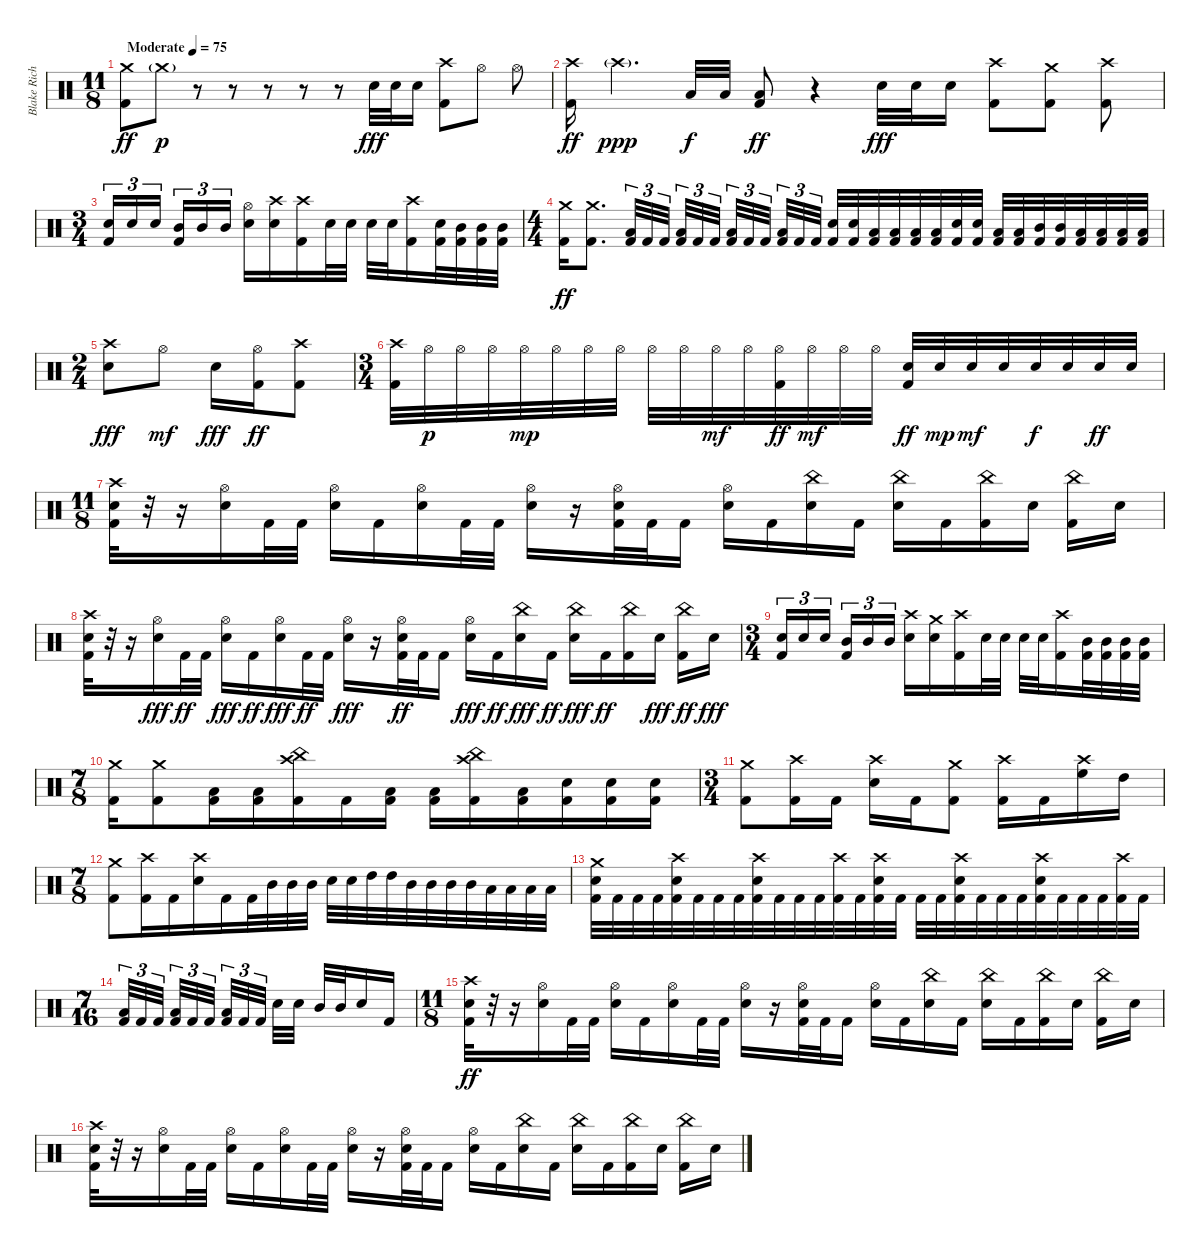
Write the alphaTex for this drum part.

\track ("Blake Richardson" "Blake Rich") {instrument percussion}
\staff {score}
\articulation defaults
\ts (11 8)
\tempo (75 "Moderate")
\clef neutral
\ks c
("Crash medium (hit)" "Kick (hit) 2").8{dy ff} "Crash medium (hit)"{g}.8{dy p} r.8 r.8 r.8 r.8 r.8 "Electric Snare (hit)".32{dy fff} "Electric Snare (hit)".32 "Electric Snare (hit)".16 ("Crash high (hit)" "Kick (hit) 2").8 "Hi-Hat (open)".8 "Hi-Hat (open)".8 |
("Crash high (hit)" "Kick (hit) 2").16{dy ff} "Crash high (hit)"{g}.4{d dy ppp volume 0} "Low Tom (hit)".32{dy f volume 11} "Low Tom (hit)".32 ("Low Tom (hit)" "Kick (hit) 2").8{dy ff} r.4 "Electric Snare (hit)".32{dy fff} "Electric Snare (hit)".32 "Electric Snare (hit)".16 ("Crash high (hit)" "Kick (hit) 2").8 ("Crash medium (hit)" "Kick (hit) 2").8 ("Crash high (hit)" "Kick (hit) 2").8 |
\ts (3 4)
("Electric Snare (hit)" "Kick (hit) 2").16{tu (3 2)} "Electric Snare (hit)".16{tu (3 2)} "Electric Snare (hit)".16{tu (3 2) beam splitsecondary} ("Mid Tom (hit)" "Kick (hit) 2").16{tu (3 2)} "Mid Tom (hit)".16{tu (3 2)} "Mid Tom (hit)".16{tu (3 2)} ("Hi-Hat (open)" "Electric Snare (hit)").16 ("Crash high (hit)" "Electric Snare (hit)").16 ("Crash high (hit)" "Kick (hit) 2").16 "Electric Snare (hit)".32 "Electric Snare (hit)".32 "Electric Snare (hit)".32 "Electric Snare (hit)".32 ("Crash high (hit)" "Kick (hit) 2").16 ("Electric Snare (hit)" "Kick (hit) 2").32 ("Mid Tom (hit)" "Kick (hit) 2").32 ("Mid Tom (hit)" "Kick (hit) 2").32 ("Mid Tom (hit)" "Kick (hit) 2").32 |
\ts (4 4)
("Crash medium (hit)" "Kick (hit) 2").16{dy ff} ("Crash medium (hit)" "Kick (hit) 2").8{d} ("Low Tom (hit)" "Kick (hit) 2").32{tu (3 2)} "Kick (hit) 2".32{tu (3 2)} "Kick (hit) 2".32{tu (3 2) beam splitsecondary} ("Low Tom (hit)" "Kick (hit) 2").32{tu (3 2)} "Kick (hit) 2".32{tu (3 2)} "Kick (hit) 2".32{tu (3 2) beam splitsecondary} ("Low Tom (hit)" "Kick (hit) 2").32{tu (3 2)} "Kick (hit) 2".32{tu (3 2)} "Kick (hit) 2".32{tu (3 2) beam splitsecondary} ("Low Tom (hit)" "Kick (hit) 2").32{tu (3 2)} "Kick (hit) 2".32{tu (3 2)} "Kick (hit) 2".32{tu (3 2)} ("Electric Snare (hit)" "Kick (hit) 2").32 ("Electric Snare (hit)" "Kick (hit) 2").32 ("Low Tom (hit)" "Kick (hit) 2").32 ("Low Tom (hit)" "Kick (hit) 2").32 ("Low Tom (hit)" "Kick (hit) 2").32 ("Low Tom (hit)" "Kick (hit) 2").32 ("Electric Snare (hit)" "Kick (hit) 2").32 ("Electric Snare (hit)" "Kick (hit) 2").32 ("Low Tom (hit)" "Kick (hit) 2").32 ("Low Tom (hit)" "Kick (hit) 2").32 ("Mid Tom (hit)" "Kick (hit) 2").32 ("Mid Tom (hit)" "Kick (hit) 2").32 ("Low Tom (hit)" "Kick (hit) 2").32 ("Low Tom (hit)" "Kick (hit) 2").32 ("Low Tom (hit)" "Kick (hit) 2").32 ("Low Tom (hit)" "Kick (hit) 2").32 |
\ts (2 4)
("Crash high (hit)" "Snare (hit) 2").8{dy fff} "Hi-Hat (open)".8{dy mf} "Electric Snare (hit)".16{dy fff} ("Hi-Hat (open)" "Kick (hit) 2").16{dy ff} ("Crash high (hit)" "Kick (hit) 2").8 |
\ts (3 4)
("Crash high (hit)" "Kick (hit) 2").32 "Hi-Hat (open)".32{dy p} "Hi-Hat (open)".32 "Hi-Hat (open)".32 "Hi-Hat (open)".32{dy mp} "Hi-Hat (open)".32 "Hi-Hat (open)".32 "Hi-Hat (open)".32 "Hi-Hat (open)".32 "Hi-Hat (open)".32 "Hi-Hat (open)".32{dy mf} "Hi-Hat (open)".32 ("Hi-Hat (open)" "Kick (hit) 2").32{dy ff} "Hi-Hat (open)".32{dy mf} "Hi-Hat (open)".32 "Hi-Hat (open)".32 ("Electric Snare (hit)" "Kick (hit) 2").32{dy ff} "Electric Snare (hit)".32{dy mp} "Electric Snare (hit)".32{dy mf} "Electric Snare (hit)".32 "Electric Snare (hit)".32{dy f} "Electric Snare (hit)".32 "Electric Snare (hit)".32{dy ff} "Electric Snare (hit)".32 |
\ts (11 8)
("Crash high (hit)" "Electric Snare (hit)" "Kick (hit) 2").32 r.32 r.16 ("Hi-Hat (open)" "Electric Snare (hit)").16 "Kick (hit) 2".32 "Kick (hit) 2".32 ("Hi-Hat (open)" "Electric Snare (hit)").16 "Kick (hit) 2".16 ("Hi-Hat (open)" "Electric Snare (hit)").16 "Kick (hit) 2".32 "Kick (hit) 2".32 ("Hi-Hat (open)" "Electric Snare (hit)").16 r.16 ("Hi-Hat (open)" "Electric Snare (hit)" "Kick (hit) 2").32 "Kick (hit) 2".32 "Kick (hit) 2".16 ("Hi-Hat (open)" "Electric Snare (hit)").16 "Kick (hit) 2".16 ("China (hit)" "Electric Snare (hit)").16 "Kick (hit) 2".16 ("China (hit)" "Electric Snare (hit)").16 "Kick (hit) 2".16 ("China (hit)" "Kick (hit) 2").16 "Electric Snare (hit)".16 ("China (hit)" "Kick (hit) 2").16 "Electric Snare (hit)".16 |
("Crash high (hit)" "Electric Snare (hit)" "Kick (hit) 2").32 r.32 r.16 ("Hi-Hat (open)" "Electric Snare (hit)").16{dy fff} "Kick (hit) 2".32{dy ff} "Kick (hit) 2".32 ("Hi-Hat (open)" "Electric Snare (hit)").16{dy fff} "Kick (hit) 2".16{dy ff} ("Hi-Hat (open)" "Electric Snare (hit)").16{dy fff} "Kick (hit) 2".32{dy ff} "Kick (hit) 2".32 ("Hi-Hat (open)" "Electric Snare (hit)").16{dy fff} r.16 ("Hi-Hat (open)" "Electric Snare (hit)" "Kick (hit) 2").32{dy ff} "Kick (hit) 2".32 "Kick (hit) 2".16 ("Hi-Hat (open)" "Electric Snare (hit)").16{dy fff} "Kick (hit) 2".16{dy ff} ("China (hit)" "Electric Snare (hit)").16{dy fff} "Kick (hit) 2".16{dy ff} ("China (hit)" "Electric Snare (hit)").16{dy fff} "Kick (hit) 2".16{dy ff} ("China (hit)" "Kick (hit) 2").16 "Electric Snare (hit)".16{dy fff} ("China (hit)" "Kick (hit) 2").16{dy ff} "Electric Snare (hit)".16{dy fff} |
\ts (3 4)
("Electric Snare (hit)" "Kick (hit) 2").16{tu (3 2)} "Electric Snare (hit)".16{tu (3 2)} "Electric Snare (hit)".16{tu (3 2) beam splitsecondary} ("Mid Tom (hit)" "Kick (hit) 2").16{tu (3 2)} "Mid Tom (hit)".16{tu (3 2)} "Mid Tom (hit)".16{tu (3 2)} ("Crash high (hit)" "Electric Snare (hit)").16 ("Crash medium (hit)" "Electric Snare (hit)").16 ("Crash high (hit)" "Kick (hit) 2").16 "Electric Snare (hit)".32 "Electric Snare (hit)".32 "Electric Snare (hit)".32 "Electric Snare (hit)".32 ("Crash high (hit)" "Kick (hit) 2").16 ("Mid Tom (hit)" "Kick (hit) 2").32 ("Mid Tom (hit)" "Kick (hit) 2").32 ("Mid Tom (hit)" "Kick (hit) 2").32 ("Mid Tom (hit)" "Kick (hit) 2").32 |
\ts (7 8)
("Crash medium (hit)" "Kick (hit) 2").16 ("Crash medium (hit)" "Kick (hit) 2").8 ("Low Tom (hit)" "Kick (hit) 2").16 ("Low Tom (hit)" "Kick (hit) 2").16 ("China (hit)" "Crash high (hit)" "Kick (hit) 2").16 "Kick (hit) 2".16 ("Low Tom (hit)" "Kick (hit) 2").16 ("Low Tom (hit)" "Kick (hit) 2").16 ("China (hit)" "Crash high (hit)" "Kick (hit) 2").16 ("Low Tom (hit)" "Kick (hit) 2").16 ("Electric Snare (hit)" "Kick (hit) 2").16 ("Electric Snare (hit)" "Kick (hit) 2").16 ("Electric Snare (hit)" "Kick (hit) 2").16 |
\ts (3 4)
("Crash medium (hit)" "Kick (hit) 2").8 ("Crash high (hit)" "Kick (hit) 2").16 "Kick (hit) 2".16 ("Crash high (hit)" "Electric Snare (hit)").16 "Kick (hit) 2".16 ("Crash medium (hit)" "Kick (hit) 2").8 ("Crash high (hit)" "Kick (hit) 2").16 "Kick (hit) 2".16 ("Crash high (hit)" "High Floor Tom (hit)").16 "High Tom (hit)".16 |
\ts (7 8)
("Crash medium (hit)" "Kick (hit) 2").8 ("Crash high (hit)" "Kick (hit) 2").16 "Kick (hit) 2".16 ("Crash high (hit)" "Electric Snare (hit)").16 "Kick (hit) 2".16 "Kick (hit) 2".32 "Mid Tom (hit)".32 "Mid Tom (hit)".32 "Mid Tom (hit)".32 "Electric Snare (hit)".32 "Electric Snare (hit)".32 "High Tom (hit)".32 "High Tom (hit)".32 "Mid Tom (hit)".32 "Mid Tom (hit)".32 "Mid Tom (hit)".32 "Mid Tom (hit)".32 "Low Tom (hit)".32 "Low Tom (hit)".32 "Low Tom (hit)".32 "Low Tom (hit)".32 |
("Crash medium (hit)" "Electric Snare (hit)" "Kick (hit) 2").32 "Kick (hit) 2".32 "Kick (hit) 2".32 "Kick (hit) 2".32 ("Crash high (hit)" "Electric Snare (hit)" "Kick (hit) 2").32 "Kick (hit) 2".32 "Kick (hit) 2".32 "Kick (hit) 2".32 ("Crash high (hit)" "Electric Snare (hit)" "Kick (hit) 2").32 "Kick (hit) 2".32 "Kick (hit) 2".32 "Kick (hit) 2".32 ("Crash high (hit)" "Kick (hit) 2").32 "Kick (hit) 2".32 ("Crash high (hit)" "Electric Snare (hit)" "Kick (hit) 2").32 "Kick (hit) 2".32 "Kick (hit) 2".32 "Kick (hit) 2".32 ("Crash high (hit)" "Electric Snare (hit)" "Kick (hit) 2").32 "Kick (hit) 2".32 "Kick (hit) 2".32 "Kick (hit) 2".32 ("Crash high (hit)" "Electric Snare (hit)" "Kick (hit) 2").32 "Kick (hit) 2".32 "Kick (hit) 2".32 "Kick (hit) 2".32 ("Crash high (hit)" "Kick (hit) 2").32 "Kick (hit) 2".32 |
\ts (7 16)
("Low Tom (hit)" "Kick (hit) 2").32{tu (3 2)} "Kick (hit) 2".32{tu (3 2)} "Kick (hit) 2".32{tu (3 2)} ("Low Tom (hit)" "Kick (hit) 2").32{tu (3 2)} "Kick (hit) 2".32{tu (3 2)} "Kick (hit) 2".32{tu (3 2)} ("Low Tom (hit)" "Kick (hit) 2").32{tu (3 2)} "Kick (hit) 2".32{tu (3 2)} "Kick (hit) 2".32{tu (3 2)} "Electric Snare (hit)".32 "Electric Snare (hit)".32 "Mid Tom (hit)".32 "Mid Tom (hit)".32 "Electric Snare (hit)".16 "Kick (hit) 2".16 |
\ts (11 8)
("Crash high (hit)" "Electric Snare (hit)" "Kick (hit) 2").32{dy ff} r.32 r.16 ("Hi-Hat (open)" "Electric Snare (hit)").16 "Kick (hit) 2".32 "Kick (hit) 2".32 ("Hi-Hat (open)" "Electric Snare (hit)").16 "Kick (hit) 2".16 ("Hi-Hat (open)" "Electric Snare (hit)").16 "Kick (hit) 2".32 "Kick (hit) 2".32 ("Hi-Hat (open)" "Electric Snare (hit)").16 r.16 ("Hi-Hat (open)" "Electric Snare (hit)" "Kick (hit) 2").32 "Kick (hit) 2".32 "Kick (hit) 2".16 ("Hi-Hat (open)" "Electric Snare (hit)").16 "Kick (hit) 2".16 ("China (hit)" "Electric Snare (hit)").16 "Kick (hit) 2".16 ("China (hit)" "Electric Snare (hit)").16 "Kick (hit) 2".16 ("China (hit)" "Kick (hit) 2").16 "Electric Snare (hit)".16 ("China (hit)" "Kick (hit) 2").16 "Electric Snare (hit)".16 |
("Crash high (hit)" "Electric Snare (hit)" "Kick (hit) 2").32 r.32 r.16 ("Hi-Hat (open)" "Electric Snare (hit)").16 "Kick (hit) 2".32 "Kick (hit) 2".32 ("Hi-Hat (open)" "Electric Snare (hit)").16 "Kick (hit) 2".16 ("Hi-Hat (open)" "Electric Snare (hit)").16 "Kick (hit) 2".32 "Kick (hit) 2".32 ("Hi-Hat (open)" "Electric Snare (hit)").16 r.16 ("Hi-Hat (open)" "Electric Snare (hit)" "Kick (hit) 2").32 "Kick (hit) 2".32 "Kick (hit) 2".16 ("Hi-Hat (open)" "Electric Snare (hit)").16 "Kick (hit) 2".16 ("China (hit)" "Electric Snare (hit)").16 "Kick (hit) 2".16 ("China (hit)" "Electric Snare (hit)").16 "Kick (hit) 2".16 ("China (hit)" "Kick (hit) 2").16 "Electric Snare (hit)".16 ("China (hit)" "Kick (hit) 2").16 "Electric Snare (hit)".16
